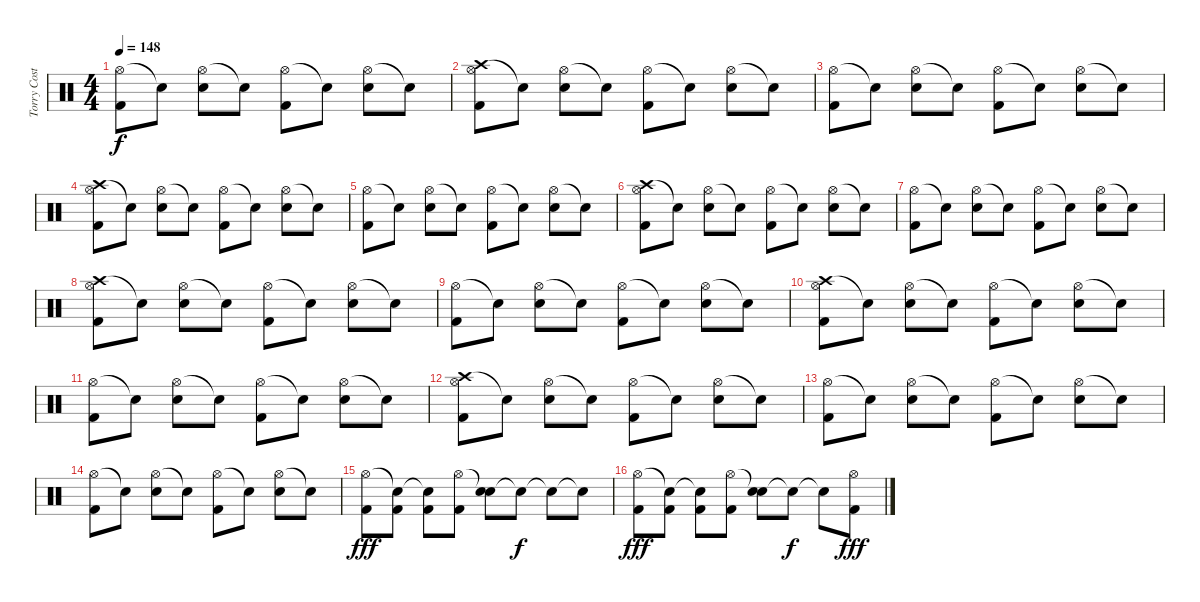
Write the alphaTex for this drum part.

\track ("Torry Costellano" "Torry Cost") {instrument percussion bank 127}
\staff {score}
\articulation defaults
\ts (4 4)
\tempo 148
\clef neutral
\ks c
("Hi-Hat (open)" "Kick (hit) 2").8{dy f} "Snare (hit)"{t}.8 ("Hi-Hat (open)" "Electric Snare (hit)").8 "Snare (hit)"{t}.8 ("Hi-Hat (open)" "Kick (hit) 2").8 "Snare (hit)"{t}.8 ("Hi-Hat (open)" "Electric Snare (hit)").8 "Snare (hit)"{t}.8 |
("Crash high (hit)" "Hi-Hat (open)" "Kick (hit) 2").8 "Snare (hit)"{t}.8 ("Hi-Hat (open)" "Electric Snare (hit)").8 "Snare (hit)"{t}.8 ("Hi-Hat (open)" "Kick (hit) 2").8 "Snare (hit)"{t}.8 ("Hi-Hat (open)" "Electric Snare (hit)").8 "Snare (hit)"{t}.8 |
("Hi-Hat (open)" "Kick (hit) 2").8 "Snare (hit)"{t}.8 ("Hi-Hat (open)" "Electric Snare (hit)").8 "Snare (hit)"{t}.8 ("Hi-Hat (open)" "Kick (hit) 2").8 "Snare (hit)"{t}.8 ("Hi-Hat (open)" "Electric Snare (hit)").8 "Snare (hit)"{t}.8 |
("Crash high (hit)" "Hi-Hat (open)" "Kick (hit) 2").8 "Snare (hit)"{t}.8 ("Hi-Hat (open)" "Electric Snare (hit)").8 "Snare (hit)"{t}.8 ("Hi-Hat (open)" "Kick (hit) 2").8 "Snare (hit)"{t}.8 ("Hi-Hat (open)" "Electric Snare (hit)").8 "Snare (hit)"{t}.8 |
("Hi-Hat (open)" "Kick (hit) 2").8 "Snare (hit)"{t}.8 ("Hi-Hat (open)" "Electric Snare (hit)").8 "Snare (hit)"{t}.8 ("Hi-Hat (open)" "Kick (hit) 2").8 "Snare (hit)"{t}.8 ("Hi-Hat (open)" "Electric Snare (hit)").8 "Snare (hit)"{t}.8 |
("Crash high (hit)" "Hi-Hat (open)" "Kick (hit) 2").8 "Snare (hit)"{t}.8 ("Hi-Hat (open)" "Electric Snare (hit)").8 "Snare (hit)"{t}.8 ("Hi-Hat (open)" "Kick (hit) 2").8 "Snare (hit)"{t}.8 ("Hi-Hat (open)" "Electric Snare (hit)").8 "Snare (hit)"{t}.8 |
("Hi-Hat (open)" "Kick (hit) 2").8 "Snare (hit)"{t}.8 ("Hi-Hat (open)" "Electric Snare (hit)").8 "Snare (hit)"{t}.8 ("Hi-Hat (open)" "Kick (hit) 2").8 "Snare (hit)"{t}.8 ("Hi-Hat (open)" "Electric Snare (hit)").8 "Snare (hit)"{t}.8 |
("Crash high (hit)" "Hi-Hat (open)" "Kick (hit) 2").8 "Snare (hit)"{t}.8 ("Hi-Hat (open)" "Electric Snare (hit)").8 "Snare (hit)"{t}.8 ("Hi-Hat (open)" "Kick (hit) 2").8 "Snare (hit)"{t}.8 ("Hi-Hat (open)" "Electric Snare (hit)").8 "Snare (hit)"{t}.8 |
("Hi-Hat (open)" "Kick (hit) 2").8 "Snare (hit)"{t}.8 ("Hi-Hat (open)" "Electric Snare (hit)").8 "Snare (hit)"{t}.8 ("Hi-Hat (open)" "Kick (hit) 2").8 "Snare (hit)"{t}.8 ("Hi-Hat (open)" "Electric Snare (hit)").8 "Snare (hit)"{t}.8 |
("Crash high (hit)" "Hi-Hat (open)" "Kick (hit) 2").8 "Snare (hit)"{t}.8 ("Hi-Hat (open)" "Electric Snare (hit)").8 "Snare (hit)"{t}.8 ("Hi-Hat (open)" "Kick (hit) 2").8 "Snare (hit)"{t}.8 ("Hi-Hat (open)" "Electric Snare (hit)").8 "Snare (hit)"{t}.8 |
("Hi-Hat (open)" "Kick (hit) 2").8 "Snare (hit)"{t}.8 ("Hi-Hat (open)" "Electric Snare (hit)").8 "Snare (hit)"{t}.8 ("Hi-Hat (open)" "Kick (hit) 2").8 "Snare (hit)"{t}.8 ("Hi-Hat (open)" "Electric Snare (hit)").8 "Snare (hit)"{t}.8 |
("Crash high (hit)" "Hi-Hat (open)" "Kick (hit) 2").8 "Snare (hit)"{t}.8 ("Hi-Hat (open)" "Electric Snare (hit)").8 "Snare (hit)"{t}.8 ("Hi-Hat (open)" "Kick (hit) 2").8 "Snare (hit)"{t}.8 ("Hi-Hat (open)" "Electric Snare (hit)").8 "Snare (hit)"{t}.8 |
("Hi-Hat (open)" "Kick (hit) 2").8 "Snare (hit)"{t}.8 ("Hi-Hat (open)" "Electric Snare (hit)").8 "Snare (hit)"{t}.8 ("Hi-Hat (open)" "Kick (hit) 2").8 "Snare (hit)"{t}.8 ("Hi-Hat (open)" "Electric Snare (hit)").8 "Snare (hit)"{t}.8 |
("Hi-Hat (open)" "Kick (hit) 2").8 "Snare (hit)"{t}.8 ("Hi-Hat (open)" "Electric Snare (hit)").8 "Snare (hit)"{t}.8 ("Hi-Hat (open)" "Kick (hit) 2").8 "Snare (hit)"{t}.8 ("Hi-Hat (open)" "Electric Snare (hit)").8 "Snare (hit)"{t}.8 |
("Hi-Hat (open)" "Kick (hit) 2").8{dy fff} ("Snare (hit)"{t} "Kick (hit) 2").8 ("Snare (hit)"{t} "Kick (hit) 2").8 ("Hi-Hat (open)" "Kick (hit) 2").8 ("Snare (hit)"{t} "Electric Snare (hit)").8 "Snare (hit)"{t}.8{dy f} "Snare (hit)"{t}.8 "Snare (hit)"{t}.8 |
("Hi-Hat (open)" "Kick (hit) 2").8{dy fff} ("Snare (hit)"{t} "Kick (hit) 2").8 ("Snare (hit)"{t} "Kick (hit) 2").8 ("Hi-Hat (open)" "Kick (hit) 2").8 ("Snare (hit)"{t} "Electric Snare (hit)").8 "Snare (hit)"{t}.8{dy f} "Snare (hit)"{t}.8 ("Kick (hit) 2" "Hi-Hat (open)").8{dy fff}
